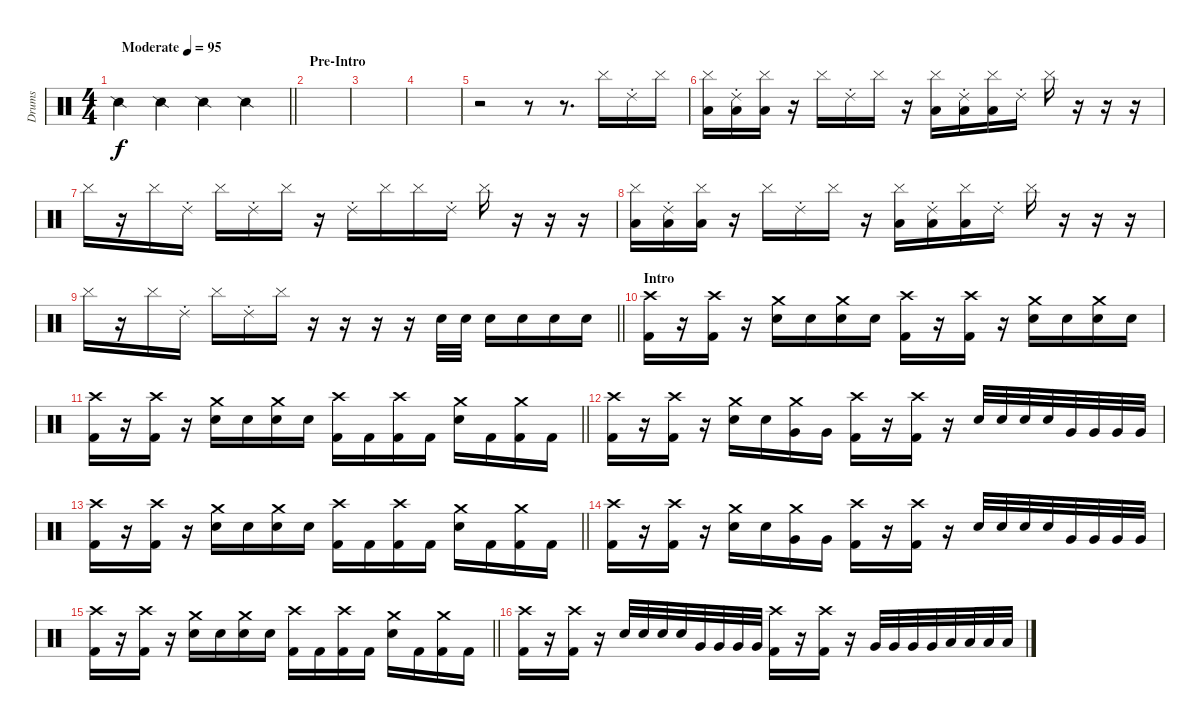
\track ("Drums" "Drums") {instrument percussion}
\staff {score}
\articulation defaults
\ts (4 4)
\tempo (95 "Moderate")
\clef neutral
\barLineRight lightlight
\ks c "Snare (side stick) 2".4{dy f} "Snare (side stick) 2".4 "Snare (side stick) 2".4 "Snare (side stick) 2".4
|
\section ("" "Pre-Intro")
|
|
|
r.2 r.8 r.8{d} "Cymbal (hit)".16 "Ride (choke) 2".16 "Cymbal (hit)".16 |
("Cymbal (hit)" "Low Tom (hit)").16 ("Ride (choke) 2" "Low Tom (hit)").16 ("Cymbal (hit)" "Low Tom (hit)").16 r.16 "Cymbal (hit)".16 "Ride (choke) 2".16 "Cymbal (hit)".16 r.16 ("Cymbal (hit)" "Low Tom (hit)").16 ("Ride (choke) 2" "Low Tom (hit)").16 ("Cymbal (hit)" "Low Tom (hit)").16 "Ride (choke) 2".16 "Cymbal (hit)".16 r.16 r.16 r.16 |
"Cymbal (hit)".16 r.16 "Cymbal (hit)".16 "Ride (choke) 2".16 "Cymbal (hit)".16 "Ride (choke) 2".16 "Cymbal (hit)".16 r.16 "Ride (choke) 2".16 "Cymbal (hit)".16 "Cymbal (hit)".16 "Ride (choke) 2".16 "Cymbal (hit)".16 r.16 r.16 r.16 |
("Cymbal (hit)" "Low Tom (hit)").16 ("Ride (choke) 2" "Low Tom (hit)").16 ("Cymbal (hit)" "Low Tom (hit)").16 r.16 "Cymbal (hit)".16 "Ride (choke) 2".16 "Cymbal (hit)".16 r.16 ("Cymbal (hit)" "Low Tom (hit)").16 ("Ride (choke) 2" "Low Tom (hit)").16 ("Cymbal (hit)" "Low Tom (hit)").16 "Ride (choke) 2".16 "Cymbal (hit)".16 r.16 r.16 r.16 |
\barLineRight lightlight "Cymbal (hit)".16
r.16 "Cymbal (hit)".16 "Ride (choke) 2".16 "Cymbal (hit)".16 "Ride (choke) 2".16 "Cymbal (hit)".16 r.16 r.16 r.16 r.16 "Electric Snare (hit)".32 "Electric Snare (hit)".32 "Electric Snare (hit)".16 "Electric Snare (hit)".16 "Electric Snare (hit)".16 "Electric Snare (hit)".16 |
\section ("" "Intro")
("Crash high (hit)" "Kick (hit) 2").16 r.16 ("Crash high (hit)" "Kick (hit) 2").16 r.16 ("Crash medium (hit)" "Electric Snare (hit)").16 "Electric Snare (hit)".16 ("Crash medium (hit)" "Electric Snare (hit)").16 "Electric Snare (hit)".16 ("Crash high (hit)" "Kick (hit) 2").16 r.16 ("Crash high (hit)" "Kick (hit) 2").16 r.16 ("Crash medium (hit)" "Electric Snare (hit)").16 "Electric Snare (hit)".16 ("Crash medium (hit)" "Electric Snare (hit)").16 "Electric Snare (hit)".16 |
\barLineRight lightlight
("Crash high (hit)" "Kick (hit) 2").16 r.16 ("Crash high (hit)" "Kick (hit) 2").16 r.16 ("Crash medium (hit)" "Electric Snare (hit)").16 "Electric Snare (hit)".16 ("Crash medium (hit)" "Electric Snare (hit)").16 "Electric Snare (hit)".16 ("Crash high (hit)" "Kick (hit) 2").16 "Kick (hit) 2".16 ("Crash high (hit)" "Kick (hit) 2").16 "Kick (hit) 2".16 ("Crash medium (hit)" "Electric Snare (hit)").16 "Kick (hit) 2".16 ("Crash medium (hit)" "Kick (hit) 2").16 "Kick (hit) 2".16 |
("Crash high (hit)" "Kick (hit) 2").16 r.16 ("Crash high (hit)" "Kick (hit) 2").16 r.16 ("Crash medium (hit)" "Electric Snare (hit)").16 "Electric Snare (hit)".16 ("Crash medium (hit)" "Very Low Tom (hit)").16 "Very Low Tom (hit)".16 ("Crash high (hit)" "Kick (hit) 2").16 r.16 ("Crash high (hit)" "Kick (hit) 2").16 r.16 "Electric Snare (hit)".32 "Electric Snare (hit)".32 "Electric Snare (hit)".32 "Electric Snare (hit)".32 "Very Low Tom (hit)".32 "Very Low Tom (hit)".32 "Very Low Tom (hit)".32 "Very Low Tom (hit)".32 |
\barLineRight lightlight
("Crash high (hit)" "Kick (hit) 2").16 r.16 ("Crash high (hit)" "Kick (hit) 2").16 r.16 ("Crash medium (hit)" "Electric Snare (hit)").16 "Electric Snare (hit)".16 ("Crash medium (hit)" "Electric Snare (hit)").16 "Electric Snare (hit)".16 ("Crash high (hit)" "Kick (hit) 2").16 "Kick (hit) 2".16 ("Crash high (hit)" "Kick (hit) 2").16 "Kick (hit) 2".16 ("Crash medium (hit)" "Electric Snare (hit)").16 "Kick (hit) 2".16 ("Crash medium (hit)" "Kick (hit) 2").16 "Kick (hit) 2".16 |
("Crash high (hit)" "Kick (hit) 2").16 r.16 ("Crash high (hit)" "Kick (hit) 2").16 r.16 ("Crash medium (hit)" "Electric Snare (hit)").16 "Electric Snare (hit)".16 ("Crash medium (hit)" "Very Low Tom (hit)").16 "Very Low Tom (hit)".16 ("Crash high (hit)" "Kick (hit) 2").16 r.16 ("Crash high (hit)" "Kick (hit) 2").16 r.16 "Electric Snare (hit)".32 "Electric Snare (hit)".32 "Electric Snare (hit)".32 "Electric Snare (hit)".32 "Very Low Tom (hit)".32 "Very Low Tom (hit)".32 "Very Low Tom (hit)".32 "Very Low Tom (hit)".32 |
\barLineRight lightlight
("Crash high (hit)" "Kick (hit) 2").16 r.16 ("Crash high (hit)" "Kick (hit) 2").16 r.16 ("Crash medium (hit)" "Electric Snare (hit)").16 "Electric Snare (hit)".16 ("Crash medium (hit)" "Electric Snare (hit)").16 "Electric Snare (hit)".16 ("Crash high (hit)" "Kick (hit) 2").16 "Kick (hit) 2".16 ("Crash high (hit)" "Kick (hit) 2").16 "Kick (hit) 2".16 ("Crash medium (hit)" "Electric Snare (hit)").16 "Kick (hit) 2".16 ("Crash medium (hit)" "Kick (hit) 2").16 "Kick (hit) 2".16 |
("Crash high (hit)" "Kick (hit) 2").16 r.16 ("Crash high (hit)" "Kick (hit) 2").16 r.16 "Electric Snare (hit)".32 "Electric Snare (hit)".32 "Electric Snare (hit)".32 "Electric Snare (hit)".32 "Very Low Tom (hit)".32 "Very Low Tom (hit)".32 "Very Low Tom (hit)".32 "Very Low Tom (hit)".32 ("Crash high (hit)" "Kick (hit) 2").16 r.16 ("Crash high (hit)" "Kick (hit) 2").16 r.16 "Very Low Tom (hit)".32 "Very Low Tom (hit)".32 "Very Low Tom (hit)".32 "Very Low Tom (hit)".32 "Low Floor Tom (hit)".32 "Low Floor Tom (hit)".32 "Low Floor Tom (hit)".32 "Low Floor Tom (hit)".32
